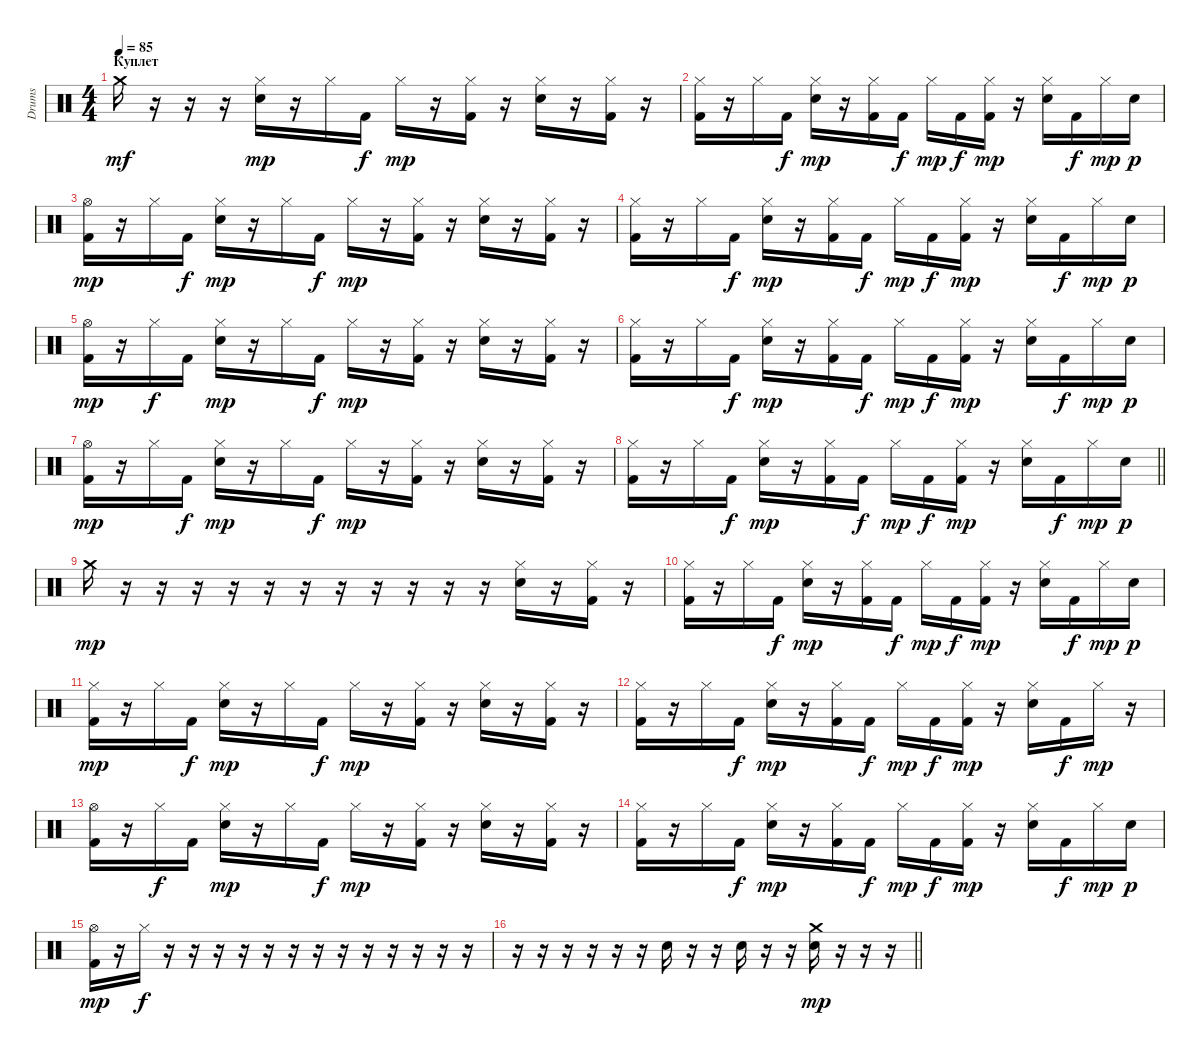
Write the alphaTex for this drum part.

\track ("Drums" "Drums") {instrument percussion}
\staff {score}
\articulation defaults
\ts (4 4)
\section ("" "Куплет")
\tempo 85
\clef neutral
\ks c "Crash medium (hit)".16{dy mf}
r.16 r.16 r.16 ("Hi-Hat (closed)" "Snare (hit) 2").16{dy mp} r.16 "Hi-Hat (closed)".16 "Kick (hit) 2".16{dy f} "Hi-Hat (closed)".16{dy mp} r.16 ("Hi-Hat (closed)" "Kick (hit) 2").16 r.16 ("Hi-Hat (closed)" "Snare (hit) 2").16 r.16 ("Hi-Hat (closed)" "Kick (hit) 2").16 r.16 |
("Hi-Hat (closed)" "Kick (hit) 2").16 r.16 "Hi-Hat (closed)".16 "Kick (hit) 2".16{dy f} ("Hi-Hat (closed)" "Snare (hit) 2").16{dy mp} r.16 ("Hi-Hat (closed)" "Kick (hit) 2").16 "Kick (hit) 2".16{dy f} "Hi-Hat (closed)".16{dy mp} "Kick (hit) 2".16{dy f} ("Hi-Hat (closed)" "Kick (hit) 2").16{dy mp} r.16 ("Hi-Hat (closed)" "Snare (hit) 2").16 "Kick (hit) 2".16{dy f} "Hi-Hat (closed)".16{dy mp} "Snare (hit) 2".16{dy p} |
("Hi-Hat (open)" "Kick (hit) 2").16{dy mp} r.16 "Hi-Hat (closed)".16 "Kick (hit) 2".16{dy f} ("Hi-Hat (closed)" "Snare (hit) 2").16{dy mp} r.16 "Hi-Hat (closed)".16 "Kick (hit) 2".16{dy f} "Hi-Hat (closed)".16{dy mp} r.16 ("Hi-Hat (closed)" "Kick (hit) 2").16 r.16 ("Hi-Hat (closed)" "Snare (hit) 2").16 r.16 ("Hi-Hat (closed)" "Kick (hit) 2").16 r.16 |
("Hi-Hat (closed)" "Kick (hit) 2").16 r.16 "Hi-Hat (closed)".16 "Kick (hit) 2".16{dy f} ("Hi-Hat (closed)" "Snare (hit) 2").16{dy mp} r.16 ("Hi-Hat (closed)" "Kick (hit) 2").16 "Kick (hit) 2".16{dy f} "Hi-Hat (closed)".16{dy mp} "Kick (hit) 2".16{dy f} ("Hi-Hat (closed)" "Kick (hit) 2").16{dy mp} r.16 ("Hi-Hat (closed)" "Snare (hit) 2").16 "Kick (hit) 2".16{dy f} "Hi-Hat (closed)".16{dy mp} "Snare (hit) 2".16{dy p} |
("Hi-Hat (open)" "Kick (hit) 2").16{dy mp} r.16 "Hi-Hat (closed)".16{dy f} "Kick (hit) 2".16 ("Hi-Hat (closed)" "Snare (hit) 2").16{dy mp} r.16 "Hi-Hat (closed)".16 "Kick (hit) 2".16{dy f} "Hi-Hat (closed)".16{dy mp} r.16 ("Hi-Hat (closed)" "Kick (hit) 2").16 r.16 ("Hi-Hat (closed)" "Snare (hit) 2").16 r.16 ("Hi-Hat (closed)" "Kick (hit) 2").16 r.16 |
("Hi-Hat (closed)" "Kick (hit) 2").16 r.16 "Hi-Hat (closed)".16 "Kick (hit) 2".16{dy f} ("Hi-Hat (closed)" "Snare (hit) 2").16{dy mp} r.16 ("Hi-Hat (closed)" "Kick (hit) 2").16 "Kick (hit) 2".16{dy f} "Hi-Hat (closed)".16{dy mp} "Kick (hit) 2".16{dy f} ("Hi-Hat (closed)" "Kick (hit) 2").16{dy mp} r.16 ("Hi-Hat (closed)" "Snare (hit) 2").16 "Kick (hit) 2".16{dy f} "Hi-Hat (closed)".16{dy mp} "Snare (hit) 2".16{dy p} |
("Hi-Hat (open)" "Kick (hit) 2").16{dy mp} r.16 "Hi-Hat (closed)".16 "Kick (hit) 2".16{dy f} ("Hi-Hat (closed)" "Snare (hit) 2").16{dy mp} r.16 "Hi-Hat (closed)".16 "Kick (hit) 2".16{dy f} "Hi-Hat (closed)".16{dy mp} r.16 ("Hi-Hat (closed)" "Kick (hit) 2").16 r.16 ("Hi-Hat (closed)" "Snare (hit) 2").16 r.16 ("Hi-Hat (closed)" "Kick (hit) 2").16 r.16 |
\barLineRight lightlight
("Hi-Hat (closed)" "Kick (hit) 2").16 r.16 "Hi-Hat (closed)".16 "Kick (hit) 2".16{dy f} ("Hi-Hat (closed)" "Snare (hit) 2").16{dy mp} r.16 ("Hi-Hat (closed)" "Kick (hit) 2").16 "Kick (hit) 2".16{dy f} "Hi-Hat (closed)".16{dy mp} "Kick (hit) 2".16{dy f} ("Hi-Hat (closed)" "Kick (hit) 2").16{dy mp} r.16 ("Hi-Hat (closed)" "Snare (hit) 2").16 "Kick (hit) 2".16{dy f} "Hi-Hat (closed)".16{dy mp} "Snare (hit) 2".16{dy p} |
"Crash medium (hit)".16{dy mp} r.16 r.16 r.16 r.16 r.16 r.16 r.16 r.16 r.16 r.16 r.16 ("Hi-Hat (closed)" "Snare (hit) 2").16 r.16 ("Hi-Hat (closed)" "Kick (hit) 2").16 r.16 |
("Hi-Hat (closed)" "Kick (hit) 2").16 r.16 "Hi-Hat (closed)".16 "Kick (hit) 2".16{dy f} ("Hi-Hat (closed)" "Snare (hit) 2").16{dy mp} r.16 ("Hi-Hat (closed)" "Kick (hit) 2").16 "Kick (hit) 2".16{dy f} "Hi-Hat (closed)".16{dy mp} "Kick (hit) 2".16{dy f} ("Hi-Hat (closed)" "Kick (hit) 2").16{dy mp} r.16 ("Hi-Hat (closed)" "Snare (hit) 2").16 "Kick (hit) 2".16{dy f} "Hi-Hat (closed)".16{dy mp} "Snare (hit) 2".16{dy p} |
("Hi-Hat (closed)" "Kick (hit) 2").16{dy mp} r.16 "Hi-Hat (closed)".16 "Kick (hit) 2".16{dy f} ("Hi-Hat (closed)" "Snare (hit) 2").16{dy mp} r.16 "Hi-Hat (closed)".16 "Kick (hit) 2".16{dy f} "Hi-Hat (closed)".16{dy mp} r.16 ("Hi-Hat (closed)" "Kick (hit) 2").16 r.16 ("Hi-Hat (closed)" "Snare (hit) 2").16 r.16 ("Hi-Hat (closed)" "Kick (hit) 2").16 r.16 |
("Hi-Hat (closed)" "Kick (hit) 2").16 r.16 "Hi-Hat (closed)".16 "Kick (hit) 2".16{dy f} ("Hi-Hat (closed)" "Snare (hit) 2").16{dy mp} r.16 ("Hi-Hat (closed)" "Kick (hit) 2").16 "Kick (hit) 2".16{dy f} "Hi-Hat (closed)".16{dy mp} "Kick (hit) 2".16{dy f} ("Hi-Hat (closed)" "Kick (hit) 2").16{dy mp} r.16 ("Hi-Hat (closed)" "Snare (hit) 2").16 "Kick (hit) 2".16{dy f} "Hi-Hat (closed)".16{dy mp} r.16 |
("Hi-Hat (open)" "Kick (hit) 2").16 r.16 "Hi-Hat (closed)".16{dy f} "Kick (hit) 2".16 ("Hi-Hat (closed)" "Snare (hit) 2").16{dy mp} r.16 "Hi-Hat (closed)".16 "Kick (hit) 2".16{dy f} "Hi-Hat (closed)".16{dy mp} r.16 ("Hi-Hat (closed)" "Kick (hit) 2").16 r.16 ("Hi-Hat (closed)" "Snare (hit) 2").16 r.16 ("Hi-Hat (closed)" "Kick (hit) 2").16 r.16 |
("Hi-Hat (closed)" "Kick (hit) 2").16 r.16 "Hi-Hat (closed)".16 "Kick (hit) 2".16{dy f} ("Hi-Hat (closed)" "Snare (hit) 2").16{dy mp} r.16 ("Hi-Hat (closed)" "Kick (hit) 2").16 "Kick (hit) 2".16{dy f} "Hi-Hat (closed)".16{dy mp} "Kick (hit) 2".16{dy f} ("Hi-Hat (closed)" "Kick (hit) 2").16{dy mp} r.16 ("Hi-Hat (closed)" "Snare (hit) 2").16 "Kick (hit) 2".16{dy f} "Hi-Hat (closed)".16{dy mp} "Snare (hit) 2".16{dy p} |
("Hi-Hat (open)" "Kick (hit) 2").16{dy mp} r.16 "Hi-Hat (closed)".16{dy f} r.16 r.16 r.16 r.16 r.16 r.16 r.16 r.16 r.16 r.16 r.16 r.16 r.16 |
\barLineRight lightlight
r.16 r.16 r.16 r.16 r.16 r.16 "Snare (hit) 2".16 r.16 r.16 "Snare (hit) 2".16 r.16 r.16 ("Crash medium (hit)" "Snare (hit) 2").16{dy mp} r.16 r.16 r.16
